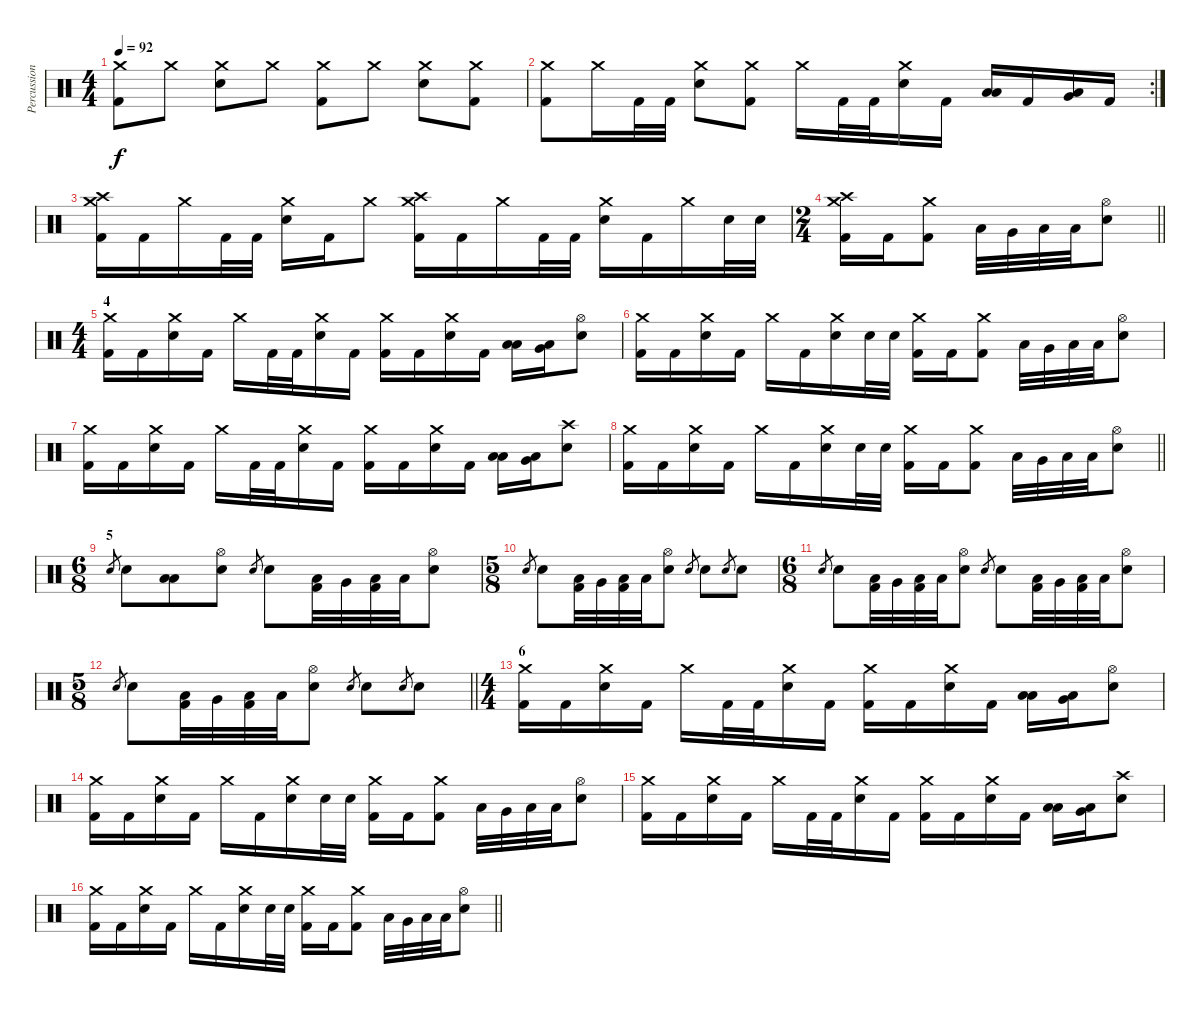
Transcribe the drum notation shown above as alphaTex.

\track ("Percussion" "Percussion") {instrument percussion}
\staff {score}
\articulation defaults
\ts (4 4)
\tempo 92
\clef neutral
\ks c
("Crash medium (hit)" "Kick (hit) 2").8{dy f} "Crash medium (hit)".8 ("Crash medium (hit)" "Electric Snare (hit)").8 "Crash medium (hit)".8 ("Crash medium (hit)" "Kick (hit) 2").8 "Crash medium (hit)".8 ("Crash medium (hit)" "Electric Snare (hit)").8 ("Crash medium (hit)" "Kick (hit) 2").8 |
\rc 2
("Crash medium (hit)" "Kick (hit) 2").8 "Crash medium (hit)".16 "Kick (hit) 2".32 "Kick (hit) 2".32 ("Crash medium (hit)" "Electric Snare (hit)").8 ("Crash medium (hit)" "Kick (hit) 2").8 "Crash medium (hit)".16 "Kick (hit) 2".32 "Kick (hit) 2".32 ("Crash medium (hit)" "Electric Snare (hit)").16 "Kick (hit) 2".16 ("Low Tom (hit)" "Low Floor Tom (hit)").16 "Kick (hit) 2".16 ("Very Low Tom (hit)" "Low Floor Tom (hit)").16 "Kick (hit) 2".16 |
("Crash medium (hit)" "Crash high (hit)" "Kick (hit) 2").16 "Kick (hit) 2".16 "Crash medium (hit)".16 "Kick (hit) 2".32 "Kick (hit) 2".32 ("Crash medium (hit)" "Electric Snare (hit)").16 "Kick (hit) 2".16 "Crash medium (hit)".8 ("Crash medium (hit)" "Crash high (hit)" "Kick (hit) 2").16 "Kick (hit) 2".16 "Crash medium (hit)".16 "Kick (hit) 2".32 "Kick (hit) 2".32 ("Crash medium (hit)" "Electric Snare (hit)").16 "Kick (hit) 2".16 "Crash medium (hit)".16 "Electric Snare (hit)".32 "Electric Snare (hit)".32 |
\ts (2 4)
\barLineRight lightlight
("Crash medium (hit)" "Crash high (hit)" "Kick (hit) 2").16 "Kick (hit) 2".16 ("Crash medium (hit)" "Kick (hit) 2").8 "Low Tom (hit)".32 "Very Low Tom (hit)".32 "Low Floor Tom (hit)".32 "Low Floor Tom (hit)".32 ("Hi-Hat (open)" "Electric Snare (hit)").8 |
\ts (4 4)
\section ("" "4")
("Crash medium (hit)" "Kick (hit) 2").16 "Kick (hit) 2".16 ("Crash medium (hit)" "Electric Snare (hit)").16 "Kick (hit) 2".16 "Crash medium (hit)".16 "Kick (hit) 2".32 "Kick (hit) 2".32 ("Crash medium (hit)" "Electric Snare (hit)").16 "Kick (hit) 2".16 ("Crash medium (hit)" "Kick (hit) 2").16 "Kick (hit) 2".16 ("Crash medium (hit)" "Electric Snare (hit)").16 "Kick (hit) 2".16 ("Low Tom (hit)" "Low Floor Tom (hit)").16 ("Very Low Tom (hit)" "Low Floor Tom (hit)").16 ("Hi-Hat (open)" "Electric Snare (hit)").8 |
("Crash medium (hit)" "Kick (hit) 2").16 "Kick (hit) 2".16 ("Crash medium (hit)" "Electric Snare (hit)").16 "Kick (hit) 2".16 "Crash medium (hit)".16 "Kick (hit) 2".16 ("Crash medium (hit)" "Electric Snare (hit)").16 "Electric Snare (hit)".32 "Electric Snare (hit)".32 ("Crash medium (hit)" "Kick (hit) 2").16 "Kick (hit) 2".16 ("Crash medium (hit)" "Kick (hit) 2").8 "Low Tom (hit)".32 "Very Low Tom (hit)".32 "Low Floor Tom (hit)".32 "Low Floor Tom (hit)".32 ("Hi-Hat (open)" "Electric Snare (hit)").8 |
("Crash medium (hit)" "Kick (hit) 2").16 "Kick (hit) 2".16 ("Crash medium (hit)" "Electric Snare (hit)").16 "Kick (hit) 2".16 "Crash medium (hit)".16 "Kick (hit) 2".32 "Kick (hit) 2".32 ("Crash medium (hit)" "Electric Snare (hit)").16 "Kick (hit) 2".16 ("Crash medium (hit)" "Kick (hit) 2").16 "Kick (hit) 2".16 ("Crash medium (hit)" "Electric Snare (hit)").16 "Kick (hit) 2".16 ("Low Tom (hit)" "Low Floor Tom (hit)").16 ("Very Low Tom (hit)" "Low Floor Tom (hit)").16 ("Crash high (hit)" "Electric Snare (hit)").8 |
\barLineRight lightlight
("Crash medium (hit)" "Kick (hit) 2").16 "Kick (hit) 2".16 ("Crash medium (hit)" "Electric Snare (hit)").16 "Kick (hit) 2".16 "Crash medium (hit)".16 "Kick (hit) 2".16 ("Crash medium (hit)" "Electric Snare (hit)").16 "Electric Snare (hit)".32 "Electric Snare (hit)".32 ("Crash medium (hit)" "Kick (hit) 2").16 "Kick (hit) 2".16 ("Crash medium (hit)" "Kick (hit) 2").8 "Low Tom (hit)".32 "Very Low Tom (hit)".32 "Low Floor Tom (hit)".32 "Low Floor Tom (hit)".32 ("Hi-Hat (open)" "Electric Snare (hit)").8 |
\ts (6 8)
\section ("" "5")
"Electric Snare (hit)".8{gr} "Electric Snare (hit)".8 ("Low Tom (hit)" "Low Floor Tom (hit)").8 ("Hi-Hat (open)" "Electric Snare (hit)").8 "Electric Snare (hit)".8{gr} "Electric Snare (hit)".8 ("Low Tom (hit)" "Kick (hit) 2").32 "Very Low Tom (hit)".32 ("Low Floor Tom (hit)" "Kick (hit) 2").32 "Low Floor Tom (hit)".32 ("Hi-Hat (open)" "Electric Snare (hit)").8 |
\ts (5 8)
"Electric Snare (hit)".8{gr} "Electric Snare (hit)".8 ("Low Tom (hit)" "Kick (hit) 2").32 "Very Low Tom (hit)".32 ("Low Floor Tom (hit)" "Kick (hit) 2").32 "Low Floor Tom (hit)".32 ("Hi-Hat (open)" "Electric Snare (hit)").8 "Electric Snare (hit)".8{gr} "Electric Snare (hit)".8 "Electric Snare (hit)".8{gr} "Electric Snare (hit)".8 |
\ts (6 8)
"Electric Snare (hit)".8{gr} "Electric Snare (hit)".8 ("Low Tom (hit)" "Kick (hit) 2").32 "Very Low Tom (hit)".32 ("Low Floor Tom (hit)" "Kick (hit) 2").32 "Low Floor Tom (hit)".32 ("Hi-Hat (open)" "Electric Snare (hit)").8 "Electric Snare (hit)".8{gr} "Electric Snare (hit)".8 ("Low Tom (hit)" "Kick (hit) 2").32 "Very Low Tom (hit)".32 ("Low Floor Tom (hit)" "Kick (hit) 2").32 "Low Floor Tom (hit)".32 ("Hi-Hat (open)" "Electric Snare (hit)").8 |
\ts (5 8)
\barLineRight lightlight "Electric Snare (hit)".8{gr} "Electric Snare (hit)".8
("Low Tom (hit)" "Kick (hit) 2").32 "Very Low Tom (hit)".32 ("Low Floor Tom (hit)" "Kick (hit) 2").32 "Low Floor Tom (hit)".32 ("Hi-Hat (open)" "Electric Snare (hit)").8 "Electric Snare (hit)".8{gr} "Electric Snare (hit)".8 "Electric Snare (hit)".8{gr} "Electric Snare (hit)".8 |
\ts (4 4)
\section ("" "6")
("Crash medium (hit)" "Kick (hit) 2").16 "Kick (hit) 2".16 ("Crash medium (hit)" "Electric Snare (hit)").16 "Kick (hit) 2".16 "Crash medium (hit)".16 "Kick (hit) 2".32 "Kick (hit) 2".32 ("Crash medium (hit)" "Electric Snare (hit)").16 "Kick (hit) 2".16 ("Crash medium (hit)" "Kick (hit) 2").16 "Kick (hit) 2".16 ("Crash medium (hit)" "Electric Snare (hit)").16 "Kick (hit) 2".16 ("Low Tom (hit)" "Low Floor Tom (hit)").16 ("Very Low Tom (hit)" "Low Floor Tom (hit)").16 ("Hi-Hat (open)" "Electric Snare (hit)").8 |
("Crash medium (hit)" "Kick (hit) 2").16 "Kick (hit) 2".16 ("Crash medium (hit)" "Electric Snare (hit)").16 "Kick (hit) 2".16 "Crash medium (hit)".16 "Kick (hit) 2".16 ("Crash medium (hit)" "Electric Snare (hit)").16 "Electric Snare (hit)".32 "Electric Snare (hit)".32 ("Crash medium (hit)" "Kick (hit) 2").16 "Kick (hit) 2".16 ("Crash medium (hit)" "Kick (hit) 2").8 "Low Tom (hit)".32 "Very Low Tom (hit)".32 "Low Floor Tom (hit)".32 "Low Floor Tom (hit)".32 ("Hi-Hat (open)" "Electric Snare (hit)").8 |
("Crash medium (hit)" "Kick (hit) 2").16 "Kick (hit) 2".16 ("Crash medium (hit)" "Electric Snare (hit)").16 "Kick (hit) 2".16 "Crash medium (hit)".16 "Kick (hit) 2".32 "Kick (hit) 2".32 ("Crash medium (hit)" "Electric Snare (hit)").16 "Kick (hit) 2".16 ("Crash medium (hit)" "Kick (hit) 2").16 "Kick (hit) 2".16 ("Crash medium (hit)" "Electric Snare (hit)").16 "Kick (hit) 2".16 ("Low Tom (hit)" "Low Floor Tom (hit)").16 ("Very Low Tom (hit)" "Low Floor Tom (hit)").16 ("Crash high (hit)" "Electric Snare (hit)").8 |
\barLineRight lightlight
("Crash medium (hit)" "Kick (hit) 2").16 "Kick (hit) 2".16 ("Crash medium (hit)" "Electric Snare (hit)").16 "Kick (hit) 2".16 "Crash medium (hit)".16 "Kick (hit) 2".16 ("Crash medium (hit)" "Electric Snare (hit)").16 "Electric Snare (hit)".32 "Electric Snare (hit)".32 ("Crash medium (hit)" "Kick (hit) 2").16 "Kick (hit) 2".16 ("Crash medium (hit)" "Kick (hit) 2").8 "Low Tom (hit)".32 "Very Low Tom (hit)".32 "Low Floor Tom (hit)".32 "Low Floor Tom (hit)".32 ("Hi-Hat (open)" "Electric Snare (hit)").8
